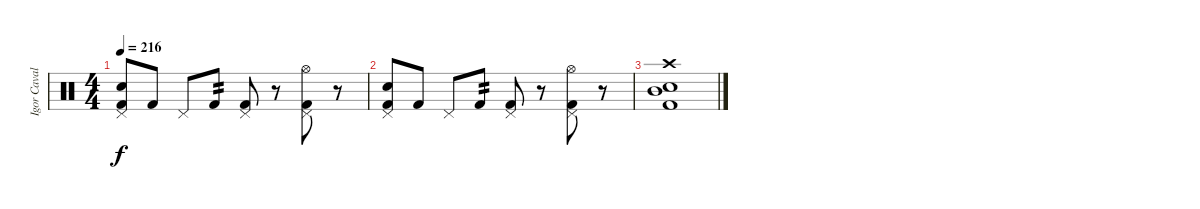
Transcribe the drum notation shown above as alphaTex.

\track ("Igor Cavalera" "Igor Caval") {instrument percussion}
\staff {score}
\articulation defaults
\ts (4 4)
\tempo 216
\clef neutral
\ks c
("Snare (hit) 2" "Pedal Hi-Hat (hit)" "Kick (hit) 2").8{dy f} "Kick (hit) 2".8 "Pedal Hi-Hat (hit)".8 "Kick (hit) 2".8{tp 2} ("Pedal Hi-Hat (hit)" "Kick (hit) 2").8 r.8 ("Hi-Hat (open)" "Pedal Hi-Hat (hit)" "Kick (hit) 2").8 r.8 |
("Snare (hit) 2" "Pedal Hi-Hat (hit)" "Kick (hit) 2").8 "Kick (hit) 2".8 "Pedal Hi-Hat (hit)".8 "Kick (hit) 2".8{tp 2} ("Pedal Hi-Hat (hit)" "Kick (hit) 2").8 r.8 ("Hi-Hat (open)" "Pedal Hi-Hat (hit)" "Kick (hit) 2").8 r.8 |
("Crash high (hit)" "Snare (hit) 2" "Mid Tom (hit)" "Kick (hit) 2").1
